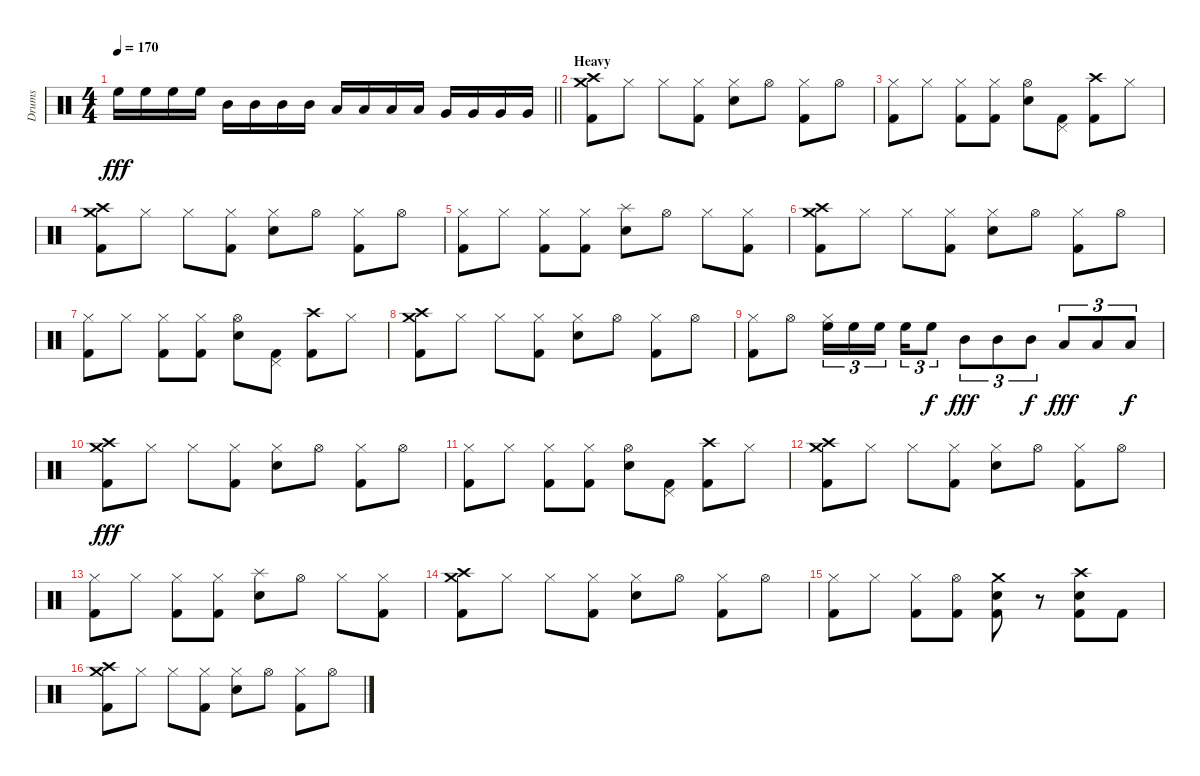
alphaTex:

\track ("Drums" "Drums") {instrument percussion}
\staff {score}
\articulation defaults
\ts (4 4)
\tempo 170
\clef neutral
\barLineRight lightlight
\ks c "High Floor Tom (hit)".16{dy fff} "High Floor Tom (hit)".16 "High Floor Tom (hit)".16 "High Floor Tom (hit)".16 "Mid Tom (hit)".16 "Mid Tom (hit)".16 "Mid Tom (hit)".16 "Mid Tom (hit)".16 "Low Tom (hit)".16 "Low Tom (hit)".16 "Low Tom (hit)".16 "Low Tom (hit)".16 "Very Low Tom (hit)".16 "Very Low Tom (hit)".16 "Very Low Tom (hit)".16 "Very Low Tom (hit)".16
|
\section ("" "Heavy")
("Crash medium (hit)" "Crash high (hit)" "Kick (hit) 2").8 "Hi-Hat (closed)".8 "Hi-Hat (closed)".8 ("Hi-Hat (closed)" "Kick (hit) 2").8 ("Snare (hit) 2" "Hi-Hat (closed)").8 "Hi-Hat (open)".8 ("Hi-Hat (closed)" "Kick (hit) 2").8 "Hi-Hat (open)".8 |
("Hi-Hat (closed)" "Kick (hit) 2").8 "Hi-Hat (closed)".8 ("Hi-Hat (closed)" "Kick (hit) 2").8 ("Hi-Hat (closed)" "Kick (hit) 2").8 ("Snare (hit) 2" "Hi-Hat (open)").8 ("Pedal Hi-Hat (hit)" "Kick (hit) 2").8 ("Crash high (hit)" "Kick (hit) 2").8 "Hi-Hat (closed)".8 |
("Crash medium (hit)" "Crash high (hit)" "Kick (hit) 2").8 "Hi-Hat (closed)".8 "Hi-Hat (closed)".8 ("Hi-Hat (closed)" "Kick (hit) 2").8 ("Snare (hit) 2" "Hi-Hat (closed)").8 "Hi-Hat (open)".8 ("Hi-Hat (closed)" "Kick (hit) 2").8 "Hi-Hat (open)".8 |
("Hi-Hat (closed)" "Kick (hit) 2").8 "Hi-Hat (closed)".8 ("Hi-Hat (closed)" "Kick (hit) 2").8 ("Hi-Hat (closed)" "Kick (hit) 2").8 ("Splash (hit)" "Snare (hit) 2").8 "Hi-Hat (open)".8 "Hi-Hat (closed)".8 ("Hi-Hat (closed)" "Kick (hit) 2").8 |
("Crash medium (hit)" "Crash high (hit)" "Kick (hit) 2").8 "Hi-Hat (closed)".8 "Hi-Hat (closed)".8 ("Hi-Hat (closed)" "Kick (hit) 2").8 ("Snare (hit) 2" "Hi-Hat (closed)").8 "Hi-Hat (open)".8 ("Hi-Hat (closed)" "Kick (hit) 2").8 "Hi-Hat (open)".8 |
("Hi-Hat (closed)" "Kick (hit) 2").8 "Hi-Hat (closed)".8 ("Hi-Hat (closed)" "Kick (hit) 2").8 ("Hi-Hat (closed)" "Kick (hit) 2").8 ("Snare (hit) 2" "Hi-Hat (open)").8 ("Pedal Hi-Hat (hit)" "Kick (hit) 2").8 ("Crash high (hit)" "Kick (hit) 2").8 "Hi-Hat (closed)".8 |
("Crash medium (hit)" "Crash high (hit)" "Kick (hit) 2").8 "Hi-Hat (closed)".8 "Hi-Hat (closed)".8 ("Hi-Hat (closed)" "Kick (hit) 2").8 ("Snare (hit) 2" "Hi-Hat (closed)").8 "Hi-Hat (open)".8 ("Hi-Hat (closed)" "Kick (hit) 2").8 "Hi-Hat (open)".8 |
("Hi-Hat (closed)" "Kick (hit) 2").8 "Hi-Hat (open)".8 ("High Floor Tom (hit)" "Hi-Hat (closed)").16{tu (3 2)} "High Floor Tom (hit)".16{tu (3 2)} "High Floor Tom (hit)".16{tu (3 2) beam splitsecondary} "High Floor Tom (hit)".16{tu (3 2)} "High Floor Tom (hit)".8{tu (3 2) dy f} "Mid Tom (hit)".8{tu (3 2) dy fff} "Mid Tom (hit)".8{tu (3 2)} "Mid Tom (hit)".8{tu (3 2) dy f} "Low Tom (hit)".8{tu (3 2) dy fff} "Low Tom (hit)".8{tu (3 2)} "Low Tom (hit)".8{tu (3 2) dy f} |
("Crash medium (hit)" "Crash high (hit)" "Kick (hit) 2").8{dy fff} "Hi-Hat (closed)".8 "Hi-Hat (closed)".8 ("Hi-Hat (closed)" "Kick (hit) 2").8 ("Snare (hit) 2" "Hi-Hat (closed)").8 "Hi-Hat (open)".8 ("Hi-Hat (closed)" "Kick (hit) 2").8 "Hi-Hat (open)".8 |
("Hi-Hat (closed)" "Kick (hit) 2").8 "Hi-Hat (closed)".8 ("Hi-Hat (closed)" "Kick (hit) 2").8 ("Hi-Hat (closed)" "Kick (hit) 2").8 ("Snare (hit) 2" "Hi-Hat (open)").8 ("Pedal Hi-Hat (hit)" "Kick (hit) 2").8 ("Crash high (hit)" "Kick (hit) 2").8 "Hi-Hat (closed)".8 |
("Crash medium (hit)" "Crash high (hit)" "Kick (hit) 2").8 "Hi-Hat (closed)".8 "Hi-Hat (closed)".8 ("Hi-Hat (closed)" "Kick (hit) 2").8 ("Snare (hit) 2" "Hi-Hat (closed)").8 "Hi-Hat (open)".8 ("Hi-Hat (closed)" "Kick (hit) 2").8 "Hi-Hat (open)".8 |
("Hi-Hat (closed)" "Kick (hit) 2").8 "Hi-Hat (closed)".8 ("Hi-Hat (closed)" "Kick (hit) 2").8 ("Hi-Hat (closed)" "Kick (hit) 2").8 ("Splash (hit)" "Snare (hit) 2").8 "Hi-Hat (open)".8 "Hi-Hat (closed)".8 ("Hi-Hat (closed)" "Kick (hit) 2").8 |
("Crash medium (hit)" "Crash high (hit)" "Kick (hit) 2").8 "Hi-Hat (closed)".8 "Hi-Hat (closed)".8 ("Hi-Hat (closed)" "Kick (hit) 2").8 ("Snare (hit) 2" "Hi-Hat (closed)").8 "Hi-Hat (open)".8 ("Hi-Hat (closed)" "Kick (hit) 2").8 "Hi-Hat (open)".8 |
("Hi-Hat (closed)" "Kick (hit) 2").8 "Hi-Hat (closed)".8 ("Hi-Hat (closed)" "Kick (hit) 2").8 ("Hi-Hat (open)" "Kick (hit) 2").8 ("Crash medium (hit)" "Snare (hit) 2" "Kick (hit) 2").8 r.8 ("Crash high (hit)" "Snare (hit) 2" "Kick (hit) 2").8 "Kick (hit) 2".8 |
("Crash medium (hit)" "Crash high (hit)" "Kick (hit) 2").8 "Hi-Hat (closed)".8 "Hi-Hat (closed)".8 ("Hi-Hat (closed)" "Kick (hit) 2").8 ("Snare (hit) 2" "Hi-Hat (closed)").8 "Hi-Hat (open)".8 ("Hi-Hat (closed)" "Kick (hit) 2").8 "Hi-Hat (open)".8
